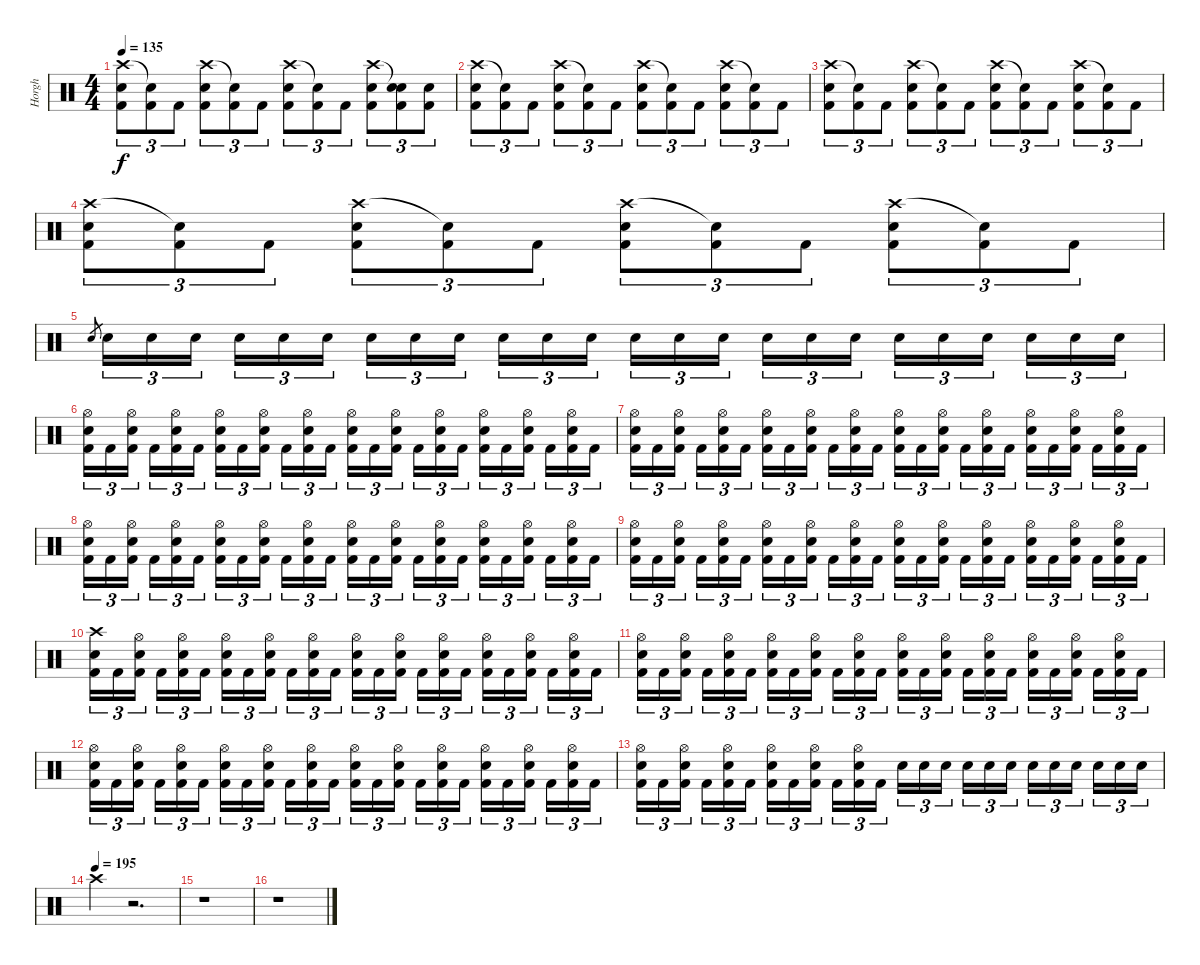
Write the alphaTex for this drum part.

\track ("Horgh" "Horgh") {instrument percussion}
\staff {score}
\articulation defaults
\ts (4 4)
\tempo 135
\clef neutral
\ks c
("Crash high (hit)" "Electric Snare (hit)" "Kick (hit) 2").8{tu (3 2) dy f} ("Snare (hit)"{t} "Kick (hit) 2").8{tu (3 2)} "Kick (hit) 2".8{tu (3 2)} ("Crash high (hit)" "Electric Snare (hit)" "Kick (hit) 2").8{tu (3 2)} ("Snare (hit)"{t} "Kick (hit) 2").8{tu (3 2)} "Kick (hit) 2".8{tu (3 2)} ("Crash high (hit)" "Electric Snare (hit)" "Kick (hit) 2").8{tu (3 2)} ("Snare (hit)"{t} "Kick (hit) 2").8{tu (3 2)} "Kick (hit) 2".8{tu (3 2)} ("Crash high (hit)" "Electric Snare (hit)" "Kick (hit) 2").8{tu (3 2)} ("Snare (hit)"{t} "Electric Snare (hit)" "Kick (hit) 2").8{tu (3 2)} ("Electric Snare (hit)" "Kick (hit) 2").8{tu (3 2)} |
("Crash high (hit)" "Electric Snare (hit)" "Kick (hit) 2").8{tu (3 2)} ("Snare (hit)"{t} "Kick (hit) 2").8{tu (3 2)} "Kick (hit) 2".8{tu (3 2)} ("Crash high (hit)" "Electric Snare (hit)" "Kick (hit) 2").8{tu (3 2)} ("Snare (hit)"{t} "Kick (hit) 2").8{tu (3 2)} "Kick (hit) 2".8{tu (3 2)} ("Crash high (hit)" "Electric Snare (hit)" "Kick (hit) 2").8{tu (3 2)} ("Snare (hit)"{t} "Kick (hit) 2").8{tu (3 2)} "Kick (hit) 2".8{tu (3 2)} ("Crash high (hit)" "Electric Snare (hit)" "Kick (hit) 2").8{tu (3 2)} ("Snare (hit)"{t} "Kick (hit) 2").8{tu (3 2)} "Kick (hit) 2".8{tu (3 2)} |
("Crash high (hit)" "Electric Snare (hit)" "Kick (hit) 2").8{tu (3 2)} ("Snare (hit)"{t} "Kick (hit) 2").8{tu (3 2)} "Kick (hit) 2".8{tu (3 2)} ("Crash high (hit)" "Electric Snare (hit)" "Kick (hit) 2").8{tu (3 2)} ("Snare (hit)"{t} "Kick (hit) 2").8{tu (3 2)} "Kick (hit) 2".8{tu (3 2)} ("Crash high (hit)" "Electric Snare (hit)" "Kick (hit) 2").8{tu (3 2)} ("Snare (hit)"{t} "Kick (hit) 2").8{tu (3 2)} "Kick (hit) 2".8{tu (3 2)} ("Crash high (hit)" "Electric Snare (hit)" "Kick (hit) 2").8{tu (3 2)} ("Snare (hit)"{t} "Kick (hit) 2").8{tu (3 2)} "Kick (hit) 2".8{tu (3 2)} |
("Crash high (hit)" "Electric Snare (hit)" "Kick (hit) 2").8{tu (3 2)} ("Snare (hit)"{t} "Kick (hit) 2").8{tu (3 2)} "Kick (hit) 2".8{tu (3 2)} ("Crash high (hit)" "Electric Snare (hit)" "Kick (hit) 2").8{tu (3 2)} ("Snare (hit)"{t} "Kick (hit) 2").8{tu (3 2)} "Kick (hit) 2".8{tu (3 2)} ("Crash high (hit)" "Electric Snare (hit)" "Kick (hit) 2").8{tu (3 2)} ("Snare (hit)"{t} "Kick (hit) 2").8{tu (3 2)} "Kick (hit) 2".8{tu (3 2)} ("Crash high (hit)" "Electric Snare (hit)" "Kick (hit) 2").8{tu (3 2)} ("Snare (hit)"{t} "Kick (hit) 2").8{tu (3 2)} "Kick (hit) 2".8{tu (3 2)} |
"Electric Snare (hit)".8{gr} "Electric Snare (hit)".16{tu (3 2)} "Electric Snare (hit)".16{tu (3 2)} "Electric Snare (hit)".16{tu (3 2) beam splitsecondary} "Electric Snare (hit)".16{tu (3 2)} "Electric Snare (hit)".16{tu (3 2)} "Electric Snare (hit)".16{tu (3 2)} "Electric Snare (hit)".16{tu (3 2)} "Electric Snare (hit)".16{tu (3 2)} "Electric Snare (hit)".16{tu (3 2) beam splitsecondary} "Electric Snare (hit)".16{tu (3 2)} "Electric Snare (hit)".16{tu (3 2)} "Electric Snare (hit)".16{tu (3 2)} "Electric Snare (hit)".16{tu (3 2)} "Electric Snare (hit)".16{tu (3 2)} "Electric Snare (hit)".16{tu (3 2) beam splitsecondary} "Electric Snare (hit)".16{tu (3 2)} "Electric Snare (hit)".16{tu (3 2)} "Electric Snare (hit)".16{tu (3 2)} "Electric Snare (hit)".16{tu (3 2)} "Electric Snare (hit)".16{tu (3 2)} "Electric Snare (hit)".16{tu (3 2) beam splitsecondary} "Electric Snare (hit)".16{tu (3 2)} "Electric Snare (hit)".16{tu (3 2)} "Electric Snare (hit)".16{tu (3 2)} |
("Hi-Hat (open)" "Electric Snare (hit)" "Kick (hit) 2").16{tu (3 2)} "Kick (hit) 2".16{tu (3 2)} ("Hi-Hat (open)" "Electric Snare (hit)" "Kick (hit) 2").16{tu (3 2) beam splitsecondary} "Kick (hit) 2".16{tu (3 2)} ("Hi-Hat (open)" "Electric Snare (hit)" "Kick (hit) 2").16{tu (3 2)} "Kick (hit) 2".16{tu (3 2)} ("Hi-Hat (open)" "Electric Snare (hit)" "Kick (hit) 2").16{tu (3 2)} "Kick (hit) 2".16{tu (3 2)} ("Hi-Hat (open)" "Electric Snare (hit)" "Kick (hit) 2").16{tu (3 2) beam splitsecondary} "Kick (hit) 2".16{tu (3 2)} ("Hi-Hat (open)" "Electric Snare (hit)" "Kick (hit) 2").16{tu (3 2)} "Kick (hit) 2".16{tu (3 2)} ("Hi-Hat (open)" "Electric Snare (hit)" "Kick (hit) 2").16{tu (3 2)} "Kick (hit) 2".16{tu (3 2)} ("Hi-Hat (open)" "Electric Snare (hit)" "Kick (hit) 2").16{tu (3 2) beam splitsecondary} "Kick (hit) 2".16{tu (3 2)} ("Hi-Hat (open)" "Electric Snare (hit)" "Kick (hit) 2").16{tu (3 2)} "Kick (hit) 2".16{tu (3 2)} ("Hi-Hat (open)" "Electric Snare (hit)" "Kick (hit) 2").16{tu (3 2)} "Kick (hit) 2".16{tu (3 2)} ("Hi-Hat (open)" "Electric Snare (hit)" "Kick (hit) 2").16{tu (3 2) beam splitsecondary} "Kick (hit) 2".16{tu (3 2)} ("Hi-Hat (open)" "Electric Snare (hit)" "Kick (hit) 2").16{tu (3 2)} "Kick (hit) 2".16{tu (3 2)} |
("Hi-Hat (open)" "Electric Snare (hit)" "Kick (hit) 2").16{tu (3 2)} "Kick (hit) 2".16{tu (3 2)} ("Hi-Hat (open)" "Electric Snare (hit)" "Kick (hit) 2").16{tu (3 2) beam splitsecondary} "Kick (hit) 2".16{tu (3 2)} ("Hi-Hat (open)" "Electric Snare (hit)" "Kick (hit) 2").16{tu (3 2)} "Kick (hit) 2".16{tu (3 2)} ("Hi-Hat (open)" "Electric Snare (hit)" "Kick (hit) 2").16{tu (3 2)} "Kick (hit) 2".16{tu (3 2)} ("Hi-Hat (open)" "Electric Snare (hit)" "Kick (hit) 2").16{tu (3 2) beam splitsecondary} "Kick (hit) 2".16{tu (3 2)} ("Hi-Hat (open)" "Electric Snare (hit)" "Kick (hit) 2").16{tu (3 2)} "Kick (hit) 2".16{tu (3 2)} ("Hi-Hat (open)" "Electric Snare (hit)" "Kick (hit) 2").16{tu (3 2)} "Kick (hit) 2".16{tu (3 2)} ("Hi-Hat (open)" "Electric Snare (hit)" "Kick (hit) 2").16{tu (3 2) beam splitsecondary} "Kick (hit) 2".16{tu (3 2)} ("Hi-Hat (open)" "Electric Snare (hit)" "Kick (hit) 2").16{tu (3 2)} "Kick (hit) 2".16{tu (3 2)} ("Hi-Hat (open)" "Electric Snare (hit)" "Kick (hit) 2").16{tu (3 2)} "Kick (hit) 2".16{tu (3 2)} ("Hi-Hat (open)" "Electric Snare (hit)" "Kick (hit) 2").16{tu (3 2) beam splitsecondary} "Kick (hit) 2".16{tu (3 2)} ("Hi-Hat (open)" "Electric Snare (hit)" "Kick (hit) 2").16{tu (3 2)} "Kick (hit) 2".16{tu (3 2)} |
("Hi-Hat (open)" "Electric Snare (hit)" "Kick (hit) 2").16{tu (3 2)} "Kick (hit) 2".16{tu (3 2)} ("Hi-Hat (open)" "Electric Snare (hit)" "Kick (hit) 2").16{tu (3 2) beam splitsecondary} "Kick (hit) 2".16{tu (3 2)} ("Hi-Hat (open)" "Electric Snare (hit)" "Kick (hit) 2").16{tu (3 2)} "Kick (hit) 2".16{tu (3 2)} ("Hi-Hat (open)" "Electric Snare (hit)" "Kick (hit) 2").16{tu (3 2)} "Kick (hit) 2".16{tu (3 2)} ("Hi-Hat (open)" "Electric Snare (hit)" "Kick (hit) 2").16{tu (3 2) beam splitsecondary} "Kick (hit) 2".16{tu (3 2)} ("Hi-Hat (open)" "Electric Snare (hit)" "Kick (hit) 2").16{tu (3 2)} "Kick (hit) 2".16{tu (3 2)} ("Hi-Hat (open)" "Electric Snare (hit)" "Kick (hit) 2").16{tu (3 2)} "Kick (hit) 2".16{tu (3 2)} ("Hi-Hat (open)" "Electric Snare (hit)" "Kick (hit) 2").16{tu (3 2) beam splitsecondary} "Kick (hit) 2".16{tu (3 2)} ("Hi-Hat (open)" "Electric Snare (hit)" "Kick (hit) 2").16{tu (3 2)} "Kick (hit) 2".16{tu (3 2)} ("Hi-Hat (open)" "Electric Snare (hit)" "Kick (hit) 2").16{tu (3 2)} "Kick (hit) 2".16{tu (3 2)} ("Hi-Hat (open)" "Electric Snare (hit)" "Kick (hit) 2").16{tu (3 2) beam splitsecondary} "Kick (hit) 2".16{tu (3 2)} ("Hi-Hat (open)" "Electric Snare (hit)" "Kick (hit) 2").16{tu (3 2)} "Kick (hit) 2".16{tu (3 2)} |
("Hi-Hat (open)" "Electric Snare (hit)" "Kick (hit) 2").16{tu (3 2)} "Kick (hit) 2".16{tu (3 2)} ("Hi-Hat (open)" "Electric Snare (hit)" "Kick (hit) 2").16{tu (3 2) beam splitsecondary} "Kick (hit) 2".16{tu (3 2)} ("Hi-Hat (open)" "Electric Snare (hit)" "Kick (hit) 2").16{tu (3 2)} "Kick (hit) 2".16{tu (3 2)} ("Hi-Hat (open)" "Electric Snare (hit)" "Kick (hit) 2").16{tu (3 2)} "Kick (hit) 2".16{tu (3 2)} ("Hi-Hat (open)" "Electric Snare (hit)" "Kick (hit) 2").16{tu (3 2) beam splitsecondary} "Kick (hit) 2".16{tu (3 2)} ("Hi-Hat (open)" "Electric Snare (hit)" "Kick (hit) 2").16{tu (3 2)} "Kick (hit) 2".16{tu (3 2)} ("Hi-Hat (open)" "Electric Snare (hit)" "Kick (hit) 2").16{tu (3 2)} "Kick (hit) 2".16{tu (3 2)} ("Hi-Hat (open)" "Electric Snare (hit)" "Kick (hit) 2").16{tu (3 2) beam splitsecondary} "Kick (hit) 2".16{tu (3 2)} ("Hi-Hat (open)" "Electric Snare (hit)" "Kick (hit) 2").16{tu (3 2)} "Kick (hit) 2".16{tu (3 2)} ("Hi-Hat (open)" "Electric Snare (hit)" "Kick (hit) 2").16{tu (3 2)} "Kick (hit) 2".16{tu (3 2)} ("Hi-Hat (open)" "Electric Snare (hit)" "Kick (hit) 2").16{tu (3 2) beam splitsecondary} "Kick (hit) 2".16{tu (3 2)} ("Hi-Hat (open)" "Electric Snare (hit)" "Kick (hit) 2").16{tu (3 2)} "Kick (hit) 2".16{tu (3 2)} |
("Crash high (hit)" "Electric Snare (hit)" "Kick (hit) 2").16{tu (3 2)} "Kick (hit) 2".16{tu (3 2)} ("Hi-Hat (open)" "Electric Snare (hit)" "Kick (hit) 2").16{tu (3 2) beam splitsecondary} "Kick (hit) 2".16{tu (3 2)} ("Hi-Hat (open)" "Electric Snare (hit)" "Kick (hit) 2").16{tu (3 2)} "Kick (hit) 2".16{tu (3 2)} ("Hi-Hat (open)" "Electric Snare (hit)" "Kick (hit) 2").16{tu (3 2)} "Kick (hit) 2".16{tu (3 2)} ("Hi-Hat (open)" "Electric Snare (hit)" "Kick (hit) 2").16{tu (3 2) beam splitsecondary} "Kick (hit) 2".16{tu (3 2)} ("Hi-Hat (open)" "Electric Snare (hit)" "Kick (hit) 2").16{tu (3 2)} "Kick (hit) 2".16{tu (3 2)} ("Hi-Hat (open)" "Electric Snare (hit)" "Kick (hit) 2").16{tu (3 2)} "Kick (hit) 2".16{tu (3 2)} ("Hi-Hat (open)" "Electric Snare (hit)" "Kick (hit) 2").16{tu (3 2) beam splitsecondary} "Kick (hit) 2".16{tu (3 2)} ("Hi-Hat (open)" "Electric Snare (hit)" "Kick (hit) 2").16{tu (3 2)} "Kick (hit) 2".16{tu (3 2)} ("Hi-Hat (open)" "Electric Snare (hit)" "Kick (hit) 2").16{tu (3 2)} "Kick (hit) 2".16{tu (3 2)} ("Hi-Hat (open)" "Electric Snare (hit)" "Kick (hit) 2").16{tu (3 2) beam splitsecondary} "Kick (hit) 2".16{tu (3 2)} ("Hi-Hat (open)" "Electric Snare (hit)" "Kick (hit) 2").16{tu (3 2)} "Kick (hit) 2".16{tu (3 2)} |
("Hi-Hat (open)" "Electric Snare (hit)" "Kick (hit) 2").16{tu (3 2)} "Kick (hit) 2".16{tu (3 2)} ("Hi-Hat (open)" "Electric Snare (hit)" "Kick (hit) 2").16{tu (3 2) beam splitsecondary} "Kick (hit) 2".16{tu (3 2)} ("Hi-Hat (open)" "Electric Snare (hit)" "Kick (hit) 2").16{tu (3 2)} "Kick (hit) 2".16{tu (3 2)} ("Hi-Hat (open)" "Electric Snare (hit)" "Kick (hit) 2").16{tu (3 2)} "Kick (hit) 2".16{tu (3 2)} ("Hi-Hat (open)" "Electric Snare (hit)" "Kick (hit) 2").16{tu (3 2) beam splitsecondary} "Kick (hit) 2".16{tu (3 2)} ("Hi-Hat (open)" "Electric Snare (hit)" "Kick (hit) 2").16{tu (3 2)} "Kick (hit) 2".16{tu (3 2)} ("Hi-Hat (open)" "Electric Snare (hit)" "Kick (hit) 2").16{tu (3 2)} "Kick (hit) 2".16{tu (3 2)} ("Hi-Hat (open)" "Electric Snare (hit)" "Kick (hit) 2").16{tu (3 2) beam splitsecondary} "Kick (hit) 2".16{tu (3 2)} ("Hi-Hat (open)" "Electric Snare (hit)" "Kick (hit) 2").16{tu (3 2)} "Kick (hit) 2".16{tu (3 2)} ("Hi-Hat (open)" "Electric Snare (hit)" "Kick (hit) 2").16{tu (3 2)} "Kick (hit) 2".16{tu (3 2)} ("Hi-Hat (open)" "Electric Snare (hit)" "Kick (hit) 2").16{tu (3 2) beam splitsecondary} "Kick (hit) 2".16{tu (3 2)} ("Hi-Hat (open)" "Electric Snare (hit)" "Kick (hit) 2").16{tu (3 2)} "Kick (hit) 2".16{tu (3 2)} |
("Hi-Hat (open)" "Electric Snare (hit)" "Kick (hit) 2").16{tu (3 2)} "Kick (hit) 2".16{tu (3 2)} ("Hi-Hat (open)" "Electric Snare (hit)" "Kick (hit) 2").16{tu (3 2) beam splitsecondary} "Kick (hit) 2".16{tu (3 2)} ("Hi-Hat (open)" "Electric Snare (hit)" "Kick (hit) 2").16{tu (3 2)} "Kick (hit) 2".16{tu (3 2)} ("Hi-Hat (open)" "Electric Snare (hit)" "Kick (hit) 2").16{tu (3 2)} "Kick (hit) 2".16{tu (3 2)} ("Hi-Hat (open)" "Electric Snare (hit)" "Kick (hit) 2").16{tu (3 2) beam splitsecondary} "Kick (hit) 2".16{tu (3 2)} ("Hi-Hat (open)" "Electric Snare (hit)" "Kick (hit) 2").16{tu (3 2)} "Kick (hit) 2".16{tu (3 2)} ("Hi-Hat (open)" "Electric Snare (hit)" "Kick (hit) 2").16{tu (3 2)} "Kick (hit) 2".16{tu (3 2)} ("Hi-Hat (open)" "Electric Snare (hit)" "Kick (hit) 2").16{tu (3 2) beam splitsecondary} "Kick (hit) 2".16{tu (3 2)} ("Hi-Hat (open)" "Electric Snare (hit)" "Kick (hit) 2").16{tu (3 2)} "Kick (hit) 2".16{tu (3 2)} ("Hi-Hat (open)" "Electric Snare (hit)" "Kick (hit) 2").16{tu (3 2)} "Kick (hit) 2".16{tu (3 2)} ("Hi-Hat (open)" "Electric Snare (hit)" "Kick (hit) 2").16{tu (3 2) beam splitsecondary} "Kick (hit) 2".16{tu (3 2)} ("Hi-Hat (open)" "Electric Snare (hit)" "Kick (hit) 2").16{tu (3 2)} "Kick (hit) 2".16{tu (3 2)} |
("Hi-Hat (open)" "Electric Snare (hit)" "Kick (hit) 2").16{tu (3 2)} "Kick (hit) 2".16{tu (3 2)} ("Hi-Hat (open)" "Electric Snare (hit)" "Kick (hit) 2").16{tu (3 2) beam splitsecondary} "Kick (hit) 2".16{tu (3 2)} ("Hi-Hat (open)" "Electric Snare (hit)" "Kick (hit) 2").16{tu (3 2)} "Kick (hit) 2".16{tu (3 2)} ("Hi-Hat (open)" "Electric Snare (hit)" "Kick (hit) 2").16{tu (3 2)} "Kick (hit) 2".16{tu (3 2)} ("Hi-Hat (open)" "Electric Snare (hit)" "Kick (hit) 2").16{tu (3 2) beam splitsecondary} "Kick (hit) 2".16{tu (3 2)} ("Hi-Hat (open)" "Electric Snare (hit)" "Kick (hit) 2").16{tu (3 2)} "Kick (hit) 2".16{tu (3 2)} "Electric Snare (hit)".16{tu (3 2)} "Electric Snare (hit)".16{tu (3 2)} "Electric Snare (hit)".16{tu (3 2) beam splitsecondary} "Electric Snare (hit)".16{tu (3 2)} "Electric Snare (hit)".16{tu (3 2)} "Electric Snare (hit)".16{tu (3 2)} "Electric Snare (hit)".16{tu (3 2)} "Electric Snare (hit)".16{tu (3 2)} "Electric Snare (hit)".16{tu (3 2) beam splitsecondary} "Electric Snare (hit)".16{tu (3 2)} "Electric Snare (hit)".16{tu (3 2)} "Electric Snare (hit)".16{tu (3 2)} |
\tempo (195)
"Crash high (hit)".4 r.2{d} |
r.1 |
r.1
